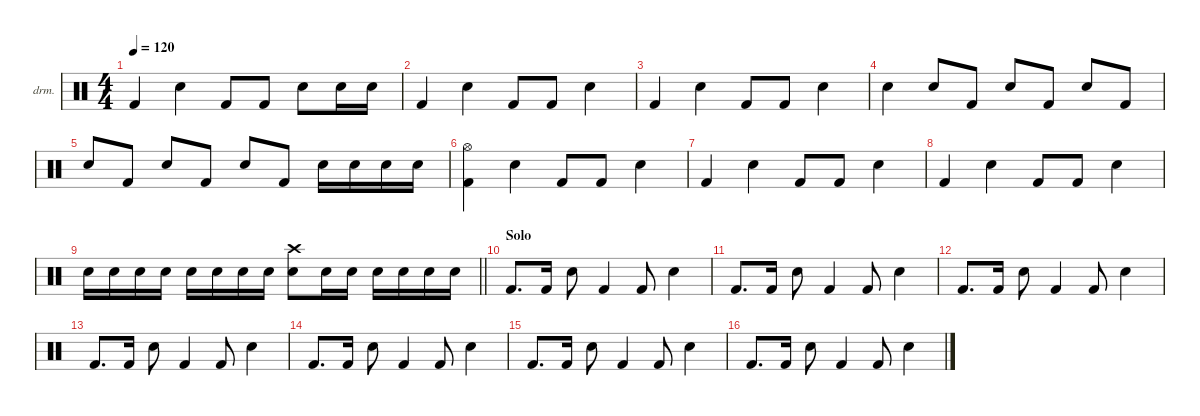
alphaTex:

\defaultSystemsLayout 4
\hideDynamics
\bracketExtendMode nobrackets
\firstSystemTrackNameOrientation horizontal
\otherSystemsTrackNameOrientation horizontal
\track ("Percussion" "drm.") {instrument percussion}
\staff {score}
\articulation defaults
\ts (4 4)
\tempo 120
\clef neutral
\ks c "Kick (hit) 2".4{dy f} "Snare (hit) 2".4 "Kick (hit) 2".8 "Kick (hit) 2".8 "Snare (hit) 2".8 "Snare (hit) 2".16 "Snare (hit) 2".16
|
"Kick (hit) 2".4 "Snare (hit) 2".4 "Kick (hit) 2".8 "Kick (hit) 2".8 "Snare (hit) 2".4 |
"Kick (hit) 2".4 "Snare (hit) 2".4 "Kick (hit) 2".8 "Kick (hit) 2".8 "Snare (hit) 2".4 |
"Snare (hit) 2".4 "Snare (hit) 2".8 "Kick (hit) 2".8 "Snare (hit) 2".8 "Kick (hit) 2".8 "Snare (hit) 2".8 "Kick (hit) 2".8 |
"Snare (hit) 2".8 "Kick (hit) 2".8 "Snare (hit) 2".8 "Kick (hit) 2".8 "Snare (hit) 2".8 "Kick (hit) 2".8 "Snare (hit) 2".16 "Snare (hit) 2".16 "Snare (hit) 2".16 "Snare (hit) 2".16 |
("Hi-Hat (open)" "Kick (hit) 2").4 "Snare (hit) 2".4 "Kick (hit) 2".8 "Kick (hit) 2".8 "Snare (hit) 2".4 |
"Kick (hit) 2".4 "Snare (hit) 2".4 "Kick (hit) 2".8 "Kick (hit) 2".8 "Snare (hit) 2".4 |
"Kick (hit) 2".4 "Snare (hit) 2".4 "Kick (hit) 2".8 "Kick (hit) 2".8 "Snare (hit) 2".4 |
\barLineRight lightlight "Snare (hit) 2".16 "Snare (hit) 2".16 "Snare (hit) 2".16 "Snare (hit) 2".16 "Snare (hit) 2".16 "Snare (hit) 2".16 "Snare (hit) 2".16 "Snare (hit) 2".16
("Snare (hit) 2" "Crash high (hit)").8 "Snare (hit) 2".16 "Snare (hit) 2".16 "Snare (hit) 2".16 "Snare (hit) 2".16 "Snare (hit) 2".16 "Snare (hit) 2".16 |
\section ("" "Solo")
"Kick (hit) 2".8{d} "Kick (hit) 2".16 "Snare (hit) 2".8 "Kick (hit) 2".4 "Kick (hit) 2".8 "Snare (hit) 2".4 |
"Kick (hit) 2".8{d} "Kick (hit) 2".16 "Snare (hit) 2".8 "Kick (hit) 2".4 "Kick (hit) 2".8 "Snare (hit) 2".4 |
"Kick (hit) 2".8{d} "Kick (hit) 2".16 "Snare (hit) 2".8 "Kick (hit) 2".4 "Kick (hit) 2".8 "Snare (hit) 2".4 |
"Kick (hit) 2".8{d} "Kick (hit) 2".16 "Snare (hit) 2".8 "Kick (hit) 2".4 "Kick (hit) 2".8 "Snare (hit) 2".4 |
"Kick (hit) 2".8{d} "Kick (hit) 2".16 "Snare (hit) 2".8 "Kick (hit) 2".4 "Kick (hit) 2".8 "Snare (hit) 2".4 |
"Kick (hit) 2".8{d} "Kick (hit) 2".16 "Snare (hit) 2".8 "Kick (hit) 2".4 "Kick (hit) 2".8 "Snare (hit) 2".4 |
"Kick (hit) 2".8{d} "Kick (hit) 2".16 "Snare (hit) 2".8 "Kick (hit) 2".4 "Kick (hit) 2".8 "Snare (hit) 2".4
